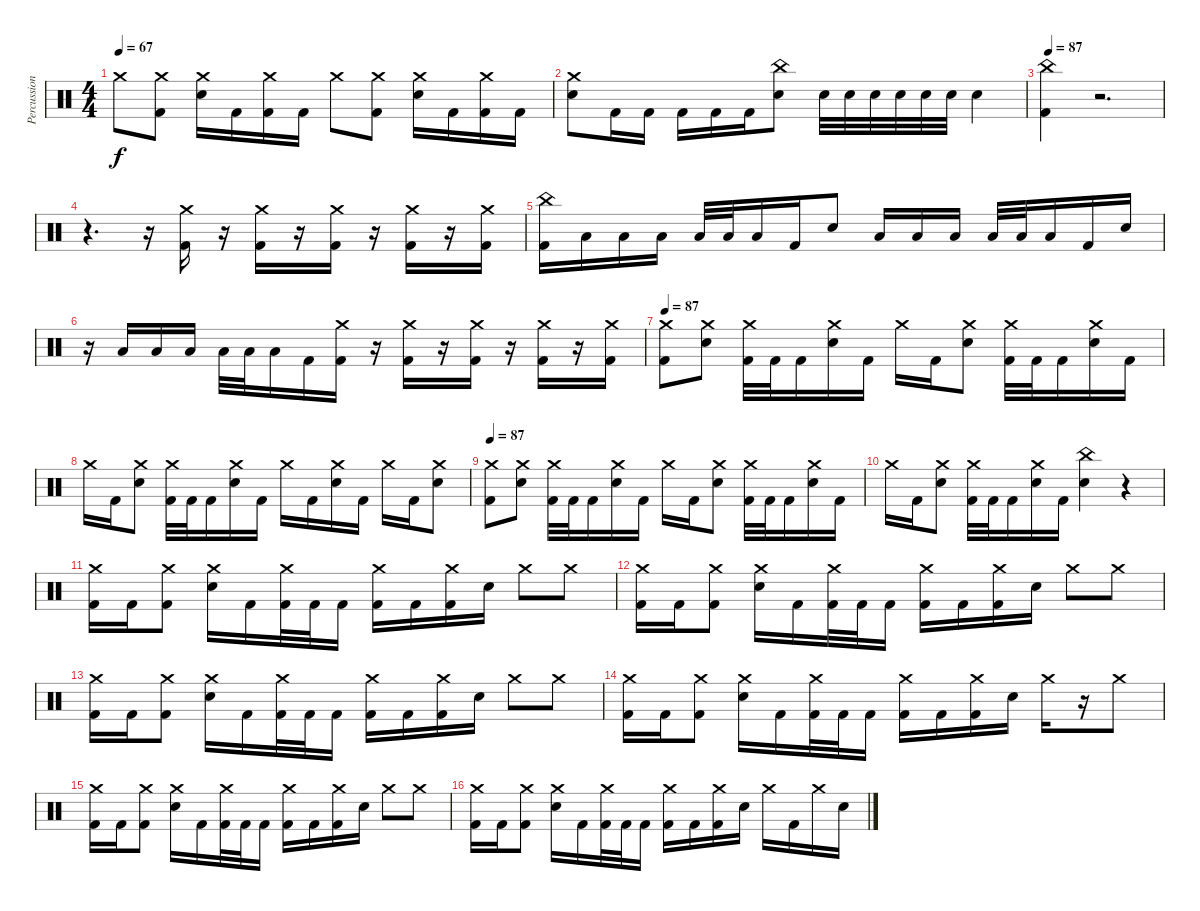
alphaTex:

\track ("Percussion" "Percussion") {instrument percussion}
\staff {score}
\articulation defaults
\ts (4 4)
\tempo 67
\clef neutral
\ks c "Crash medium (hit)".8{dy f}
("Crash medium (hit)" "Kick (hit) 2").8 ("Crash medium (hit)" "Electric Snare (hit)").16 "Kick (hit) 2".16 ("Crash medium (hit)" "Kick (hit) 2").16 "Kick (hit) 2".16 "Crash medium (hit)".8 ("Crash medium (hit)" "Kick (hit) 2").8 ("Crash medium (hit)" "Electric Snare (hit)").16 "Kick (hit) 2".16 ("Crash medium (hit)" "Kick (hit) 2").16 "Kick (hit) 2".16 |
("Crash medium (hit)" "Electric Snare (hit)").8 "Kick (hit) 2".16 "Kick (hit) 2".16 "Kick (hit) 2".16 "Kick (hit) 2".16 "Kick (hit) 2".16 ("China (hit)" "Electric Snare (hit)").8 "Electric Snare (hit)".32 "Electric Snare (hit)".32 "Electric Snare (hit)".32 "Electric Snare (hit)".32 "Electric Snare (hit)".32 "Electric Snare (hit)".32 "Electric Snare (hit)".4 |
\tempo 87
("China (hit)" "Kick (hit) 2").4 r.2{d} |
r.4{d} r.16 ("Crash medium (hit)" "Kick (hit) 2").16 r.16 ("Crash medium (hit)" "Kick (hit) 2").16 r.16 ("Crash medium (hit)" "Kick (hit) 2").16 r.16 ("Crash medium (hit)" "Kick (hit) 2").16 r.16 ("Crash medium (hit)" "Kick (hit) 2").16 |
("China (hit)" "Kick (hit) 2").16 "Low Floor Tom (hit)".16 "Low Floor Tom (hit)".16 "Low Floor Tom (hit)".16 "Low Floor Tom (hit)".32 "Low Floor Tom (hit)".32 "Low Floor Tom (hit)".16 "Kick (hit) 2".16 "Electric Snare (hit)".8 "Low Floor Tom (hit)".16 "Low Floor Tom (hit)".16 "Low Floor Tom (hit)".16 "Low Floor Tom (hit)".32 "Low Floor Tom (hit)".32 "Low Floor Tom (hit)".16 "Kick (hit) 2".16 "Electric Snare (hit)".16 |
r.16 "Low Floor Tom (hit)".16 "Low Floor Tom (hit)".16 "Low Floor Tom (hit)".16 "Low Floor Tom (hit)".32 "Low Floor Tom (hit)".32 "Low Floor Tom (hit)".16 "Kick (hit) 2".16 ("Crash medium (hit)" "Kick (hit) 2").16 r.16 ("Crash medium (hit)" "Kick (hit) 2").16 r.16 ("Crash medium (hit)" "Kick (hit) 2").16 r.16 ("Crash medium (hit)" "Kick (hit) 2").16 r.16 ("Crash medium (hit)" "Kick (hit) 2").16 |
\tempo 87
("Crash medium (hit)" "Kick (hit) 2").8 ("Crash medium (hit)" "Electric Snare (hit)").8 ("Crash medium (hit)" "Kick (hit) 2").32 "Kick (hit) 2".32 "Kick (hit) 2".16 ("Crash medium (hit)" "Electric Snare (hit)").16 "Kick (hit) 2".16 "Crash medium (hit)".16 "Kick (hit) 2".16 ("Crash medium (hit)" "Electric Snare (hit)").8 ("Crash medium (hit)" "Kick (hit) 2").32 "Kick (hit) 2".32 "Kick (hit) 2".16 ("Crash medium (hit)" "Electric Snare (hit)").16 "Kick (hit) 2".16 |
"Crash medium (hit)".16 "Kick (hit) 2".16 ("Crash medium (hit)" "Electric Snare (hit)").8 ("Crash medium (hit)" "Kick (hit) 2").32 "Kick (hit) 2".32 "Kick (hit) 2".16 ("Crash medium (hit)" "Electric Snare (hit)").16 "Kick (hit) 2".16 "Crash medium (hit)".16 "Kick (hit) 2".16 ("Crash medium (hit)" "Electric Snare (hit)").16 "Kick (hit) 2".16 "Crash medium (hit)".16 "Kick (hit) 2".16 ("Crash medium (hit)" "Electric Snare (hit)").8 |
\tempo 87
("Crash medium (hit)" "Kick (hit) 2").8 ("Crash medium (hit)" "Electric Snare (hit)").8 ("Crash medium (hit)" "Kick (hit) 2").32 "Kick (hit) 2".32 "Kick (hit) 2".16 ("Crash medium (hit)" "Electric Snare (hit)").16 "Kick (hit) 2".16 "Crash medium (hit)".16 "Kick (hit) 2".16 ("Crash medium (hit)" "Electric Snare (hit)").8 ("Crash medium (hit)" "Kick (hit) 2").32 "Kick (hit) 2".32 "Kick (hit) 2".16 ("Crash medium (hit)" "Electric Snare (hit)").16 "Kick (hit) 2".16 |
"Crash medium (hit)".16 "Kick (hit) 2".16 ("Crash medium (hit)" "Electric Snare (hit)").8 ("Crash medium (hit)" "Kick (hit) 2").32 "Kick (hit) 2".32 "Kick (hit) 2".16 ("Crash medium (hit)" "Electric Snare (hit)").16 "Kick (hit) 2".16 ("China (hit)" "Electric Snare (hit)").4 r.4 |
("Crash medium (hit)" "Kick (hit) 2").16 "Kick (hit) 2".16 ("Crash medium (hit)" "Kick (hit) 2").8 ("Crash medium (hit)" "Electric Snare (hit)").16 "Kick (hit) 2".16 ("Crash medium (hit)" "Kick (hit) 2").32 "Kick (hit) 2".32 "Kick (hit) 2".16 ("Crash medium (hit)" "Kick (hit) 2").16 "Kick (hit) 2".16 ("Crash medium (hit)" "Kick (hit) 2").16 "Electric Snare (hit)".16 "Crash medium (hit)".8 "Crash medium (hit)".8 |
("Crash medium (hit)" "Kick (hit) 2").16 "Kick (hit) 2".16 ("Crash medium (hit)" "Kick (hit) 2").8 ("Crash medium (hit)" "Electric Snare (hit)").16 "Kick (hit) 2".16 ("Crash medium (hit)" "Kick (hit) 2").32 "Kick (hit) 2".32 "Kick (hit) 2".16 ("Crash medium (hit)" "Kick (hit) 2").16 "Kick (hit) 2".16 ("Crash medium (hit)" "Kick (hit) 2").16 "Electric Snare (hit)".16 "Crash medium (hit)".8 "Crash medium (hit)".8 |
("Crash medium (hit)" "Kick (hit) 2").16 "Kick (hit) 2".16 ("Crash medium (hit)" "Kick (hit) 2").8 ("Crash medium (hit)" "Electric Snare (hit)").16 "Kick (hit) 2".16 ("Crash medium (hit)" "Kick (hit) 2").32 "Kick (hit) 2".32 "Kick (hit) 2".16 ("Crash medium (hit)" "Kick (hit) 2").16 "Kick (hit) 2".16 ("Crash medium (hit)" "Kick (hit) 2").16 "Electric Snare (hit)".16 "Crash medium (hit)".8 "Crash medium (hit)".8 |
("Crash medium (hit)" "Kick (hit) 2").16 "Kick (hit) 2".16 ("Crash medium (hit)" "Kick (hit) 2").8 ("Crash medium (hit)" "Electric Snare (hit)").16 "Kick (hit) 2".16 ("Crash medium (hit)" "Kick (hit) 2").32 "Kick (hit) 2".32 "Kick (hit) 2".16 ("Crash medium (hit)" "Kick (hit) 2").16 "Kick (hit) 2".16 ("Crash medium (hit)" "Kick (hit) 2").16 "Electric Snare (hit)".16 "Crash medium (hit)".16 r.16 "Crash medium (hit)".8 |
("Crash medium (hit)" "Kick (hit) 2").16 "Kick (hit) 2".16 ("Crash medium (hit)" "Kick (hit) 2").8 ("Crash medium (hit)" "Electric Snare (hit)").16 "Kick (hit) 2".16 ("Crash medium (hit)" "Kick (hit) 2").32 "Kick (hit) 2".32 "Kick (hit) 2".16 ("Crash medium (hit)" "Kick (hit) 2").16 "Kick (hit) 2".16 ("Crash medium (hit)" "Kick (hit) 2").16 "Electric Snare (hit)".16 "Crash medium (hit)".8 "Crash medium (hit)".8 |
("Crash medium (hit)" "Kick (hit) 2").16 "Kick (hit) 2".16 ("Crash medium (hit)" "Kick (hit) 2").8 ("Crash medium (hit)" "Electric Snare (hit)").16 "Kick (hit) 2".16 ("Crash medium (hit)" "Kick (hit) 2").32 "Kick (hit) 2".32 "Kick (hit) 2".16 ("Crash medium (hit)" "Kick (hit) 2").16 "Kick (hit) 2".16 ("Crash medium (hit)" "Kick (hit) 2").16 "Electric Snare (hit)".16 "Crash medium (hit)".16 "Kick (hit) 2".16 "Crash medium (hit)".16 "Electric Snare (hit)".16
